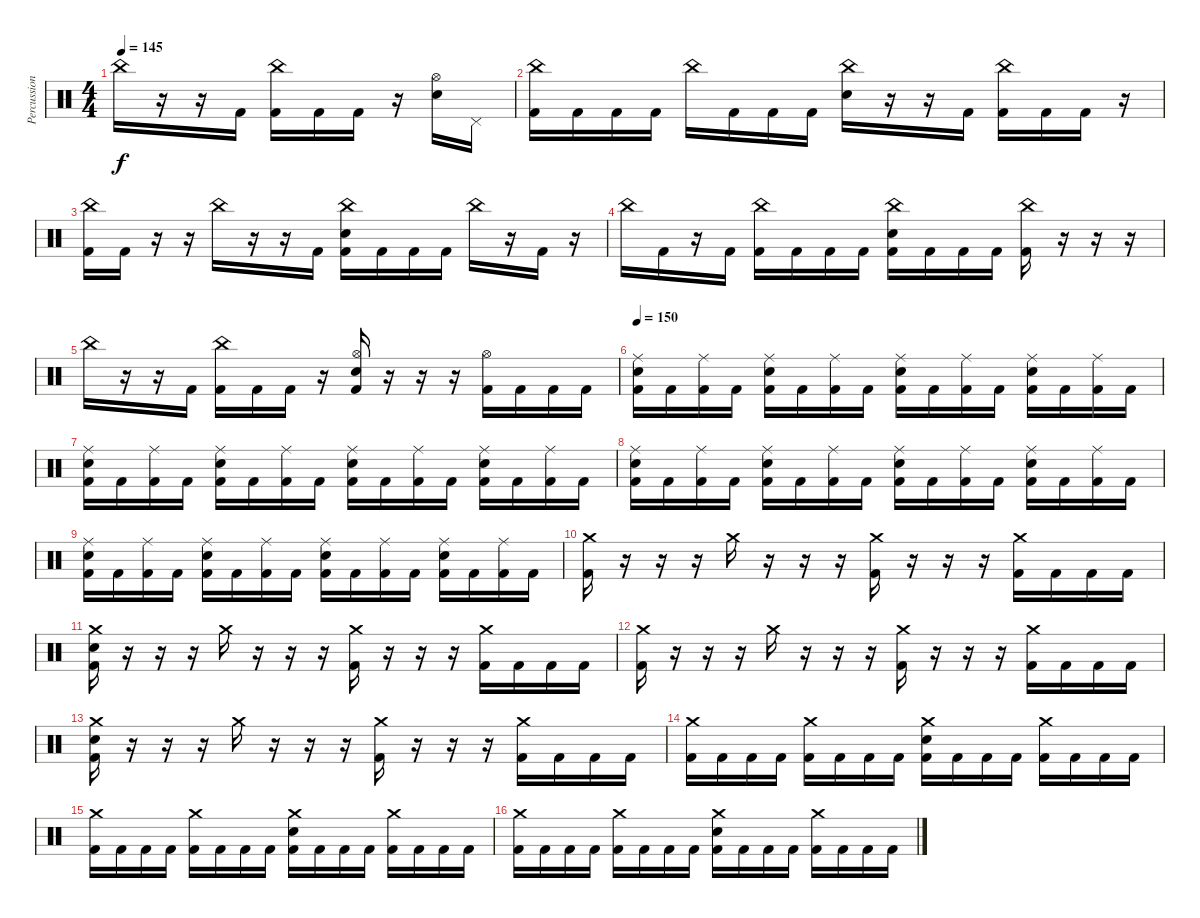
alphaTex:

\track ("Percussion" "Percussion") {instrument percussion}
\staff {score}
\articulation defaults
\ts (4 4)
\tempo 145
\clef neutral
\ks c "China (hit)".16{dy f}
r.16 r.16 "Kick (hit) 2".16 ("China (hit)" "Kick (hit) 2").16 "Kick (hit) 2".16 "Kick (hit) 2".16 r.16 ("Hi-Hat (open)" "Electric Snare (hit)").16 "Pedal Hi-Hat (hit)".16 |
("China (hit)" "Kick (hit) 2").16 "Kick (hit) 2".16 "Kick (hit) 2".16 "Kick (hit) 2".16 "China (hit)".16 "Kick (hit) 2".16 "Kick (hit) 2".16 "Kick (hit) 2".16 ("China (hit)" "Electric Snare (hit)").16 r.16 r.16 "Kick (hit) 2".16 ("China (hit)" "Kick (hit) 2").16 "Kick (hit) 2".16 "Kick (hit) 2".16 r.16 |
("China (hit)" "Kick (hit) 2").16 "Kick (hit) 2".16 r.16 r.16 "China (hit)".16 r.16 r.16 "Kick (hit) 2".16 ("China (hit)" "Electric Snare (hit)" "Kick (hit) 2").16 "Kick (hit) 2".16 "Kick (hit) 2".16 "Kick (hit) 2".16 "China (hit)".16 r.16 "Kick (hit) 2".16 r.16 |
"China (hit)".16 "Kick (hit) 2".16 r.16 "Kick (hit) 2".16 ("China (hit)" "Kick (hit) 2").16 "Kick (hit) 2".16 "Kick (hit) 2".16 "Kick (hit) 2".16 ("China (hit)" "Electric Snare (hit)" "Kick (hit) 2").16 "Kick (hit) 2".16 "Kick (hit) 2".16 "Kick (hit) 2".16 ("China (hit)" "Kick (hit) 2").16 r.16 r.16 r.16 |
"China (hit)".16 r.16 r.16 "Kick (hit) 2".16 ("China (hit)" "Kick (hit) 2").16 "Kick (hit) 2".16 "Kick (hit) 2".16 r.16 ("Hi-Hat (open)" "Electric Snare (hit)" "Kick (hit) 2").16 r.16 r.16 r.16 ("Hi-Hat (open)" "Kick (hit) 2").16 "Kick (hit) 2".16 "Kick (hit) 2".16 "Kick (hit) 2".16 |
\tempo 150
("Ride (middle)" "Electric Snare (hit)" "Kick (hit) 2").16 "Kick (hit) 2".16 ("Ride (middle)" "Kick (hit) 2").16 "Kick (hit) 2".16 ("Ride (middle)" "Electric Snare (hit)" "Kick (hit) 2").16 "Kick (hit) 2".16 ("Ride (middle)" "Kick (hit) 2").16 "Kick (hit) 2".16 ("Ride (middle)" "Electric Snare (hit)" "Kick (hit) 2").16 "Kick (hit) 2".16 ("Ride (middle)" "Kick (hit) 2").16 "Kick (hit) 2".16 ("Ride (middle)" "Electric Snare (hit)" "Kick (hit) 2").16 "Kick (hit) 2".16 ("Ride (middle)" "Kick (hit) 2").16 "Kick (hit) 2".16 |
("Ride (middle)" "Electric Snare (hit)" "Kick (hit) 2").16 "Kick (hit) 2".16 ("Ride (middle)" "Kick (hit) 2").16 "Kick (hit) 2".16 ("Ride (middle)" "Electric Snare (hit)" "Kick (hit) 2").16 "Kick (hit) 2".16 ("Ride (middle)" "Kick (hit) 2").16 "Kick (hit) 2".16 ("Ride (middle)" "Electric Snare (hit)" "Kick (hit) 2").16 "Kick (hit) 2".16 ("Ride (middle)" "Kick (hit) 2").16 "Kick (hit) 2".16 ("Ride (middle)" "Electric Snare (hit)" "Kick (hit) 2").16 "Kick (hit) 2".16 ("Ride (middle)" "Kick (hit) 2").16 "Kick (hit) 2".16 |
("Ride (middle)" "Electric Snare (hit)" "Kick (hit) 2").16 "Kick (hit) 2".16 ("Ride (middle)" "Kick (hit) 2").16 "Kick (hit) 2".16 ("Ride (middle)" "Electric Snare (hit)" "Kick (hit) 2").16 "Kick (hit) 2".16 ("Ride (middle)" "Kick (hit) 2").16 "Kick (hit) 2".16 ("Ride (middle)" "Electric Snare (hit)" "Kick (hit) 2").16 "Kick (hit) 2".16 ("Ride (middle)" "Kick (hit) 2").16 "Kick (hit) 2".16 ("Ride (middle)" "Electric Snare (hit)" "Kick (hit) 2").16 "Kick (hit) 2".16 ("Ride (middle)" "Kick (hit) 2").16 "Kick (hit) 2".16 |
("Ride (middle)" "Electric Snare (hit)" "Kick (hit) 2").16 "Kick (hit) 2".16 ("Ride (middle)" "Kick (hit) 2").16 "Kick (hit) 2".16 ("Ride (middle)" "Electric Snare (hit)" "Kick (hit) 2").16 "Kick (hit) 2".16 ("Ride (middle)" "Kick (hit) 2").16 "Kick (hit) 2".16 ("Ride (middle)" "Electric Snare (hit)" "Kick (hit) 2").16 "Kick (hit) 2".16 ("Ride (middle)" "Kick (hit) 2").16 "Kick (hit) 2".16 ("Ride (middle)" "Electric Snare (hit)" "Kick (hit) 2").16 "Kick (hit) 2".16 ("Ride (middle)" "Kick (hit) 2").16 "Kick (hit) 2".16 |
("Crash medium (hit)" "Kick (hit) 2").16 r.16 r.16 r.16 "Crash medium (hit)".16 r.16 r.16 r.16 ("Crash medium (hit)" "Kick (hit) 2").16 r.16 r.16 r.16 ("Crash medium (hit)" "Kick (hit) 2").16 "Kick (hit) 2".16 "Kick (hit) 2".16 "Kick (hit) 2".16 |
("Crash medium (hit)" "Electric Snare (hit)" "Kick (hit) 2").16 r.16 r.16 r.16 "Crash medium (hit)".16 r.16 r.16 r.16 ("Crash medium (hit)" "Kick (hit) 2").16 r.16 r.16 r.16 ("Crash medium (hit)" "Kick (hit) 2").16 "Kick (hit) 2".16 "Kick (hit) 2".16 "Kick (hit) 2".16 |
("Crash medium (hit)" "Kick (hit) 2").16 r.16 r.16 r.16 "Crash medium (hit)".16 r.16 r.16 r.16 ("Crash medium (hit)" "Kick (hit) 2").16 r.16 r.16 r.16 ("Crash medium (hit)" "Kick (hit) 2").16 "Kick (hit) 2".16 "Kick (hit) 2".16 "Kick (hit) 2".16 |
("Crash medium (hit)" "Electric Snare (hit)" "Kick (hit) 2").16 r.16 r.16 r.16 "Crash medium (hit)".16 r.16 r.16 r.16 ("Crash medium (hit)" "Kick (hit) 2").16 r.16 r.16 r.16 ("Crash medium (hit)" "Kick (hit) 2").16 "Kick (hit) 2".16 "Kick (hit) 2".16 "Kick (hit) 2".16 |
("Crash medium (hit)" "Kick (hit) 2").16 "Kick (hit) 2".16 "Kick (hit) 2".16 "Kick (hit) 2".16 ("Crash medium (hit)" "Kick (hit) 2").16 "Kick (hit) 2".16 "Kick (hit) 2".16 "Kick (hit) 2".16 ("Crash medium (hit)" "Electric Snare (hit)" "Kick (hit) 2").16 "Kick (hit) 2".16 "Kick (hit) 2".16 "Kick (hit) 2".16 ("Crash medium (hit)" "Kick (hit) 2").16 "Kick (hit) 2".16 "Kick (hit) 2".16 "Kick (hit) 2".16 |
("Crash medium (hit)" "Kick (hit) 2").16 "Kick (hit) 2".16 "Kick (hit) 2".16 "Kick (hit) 2".16 ("Crash medium (hit)" "Kick (hit) 2").16 "Kick (hit) 2".16 "Kick (hit) 2".16 "Kick (hit) 2".16 ("Crash medium (hit)" "Electric Snare (hit)" "Kick (hit) 2").16 "Kick (hit) 2".16 "Kick (hit) 2".16 "Kick (hit) 2".16 ("Crash medium (hit)" "Kick (hit) 2").16 "Kick (hit) 2".16 "Kick (hit) 2".16 "Kick (hit) 2".16 |
("Crash medium (hit)" "Kick (hit) 2").16 "Kick (hit) 2".16 "Kick (hit) 2".16 "Kick (hit) 2".16 ("Crash medium (hit)" "Kick (hit) 2").16 "Kick (hit) 2".16 "Kick (hit) 2".16 "Kick (hit) 2".16 ("Crash medium (hit)" "Electric Snare (hit)" "Kick (hit) 2").16 "Kick (hit) 2".16 "Kick (hit) 2".16 "Kick (hit) 2".16 ("Crash medium (hit)" "Kick (hit) 2").16 "Kick (hit) 2".16 "Kick (hit) 2".16 "Kick (hit) 2".16
